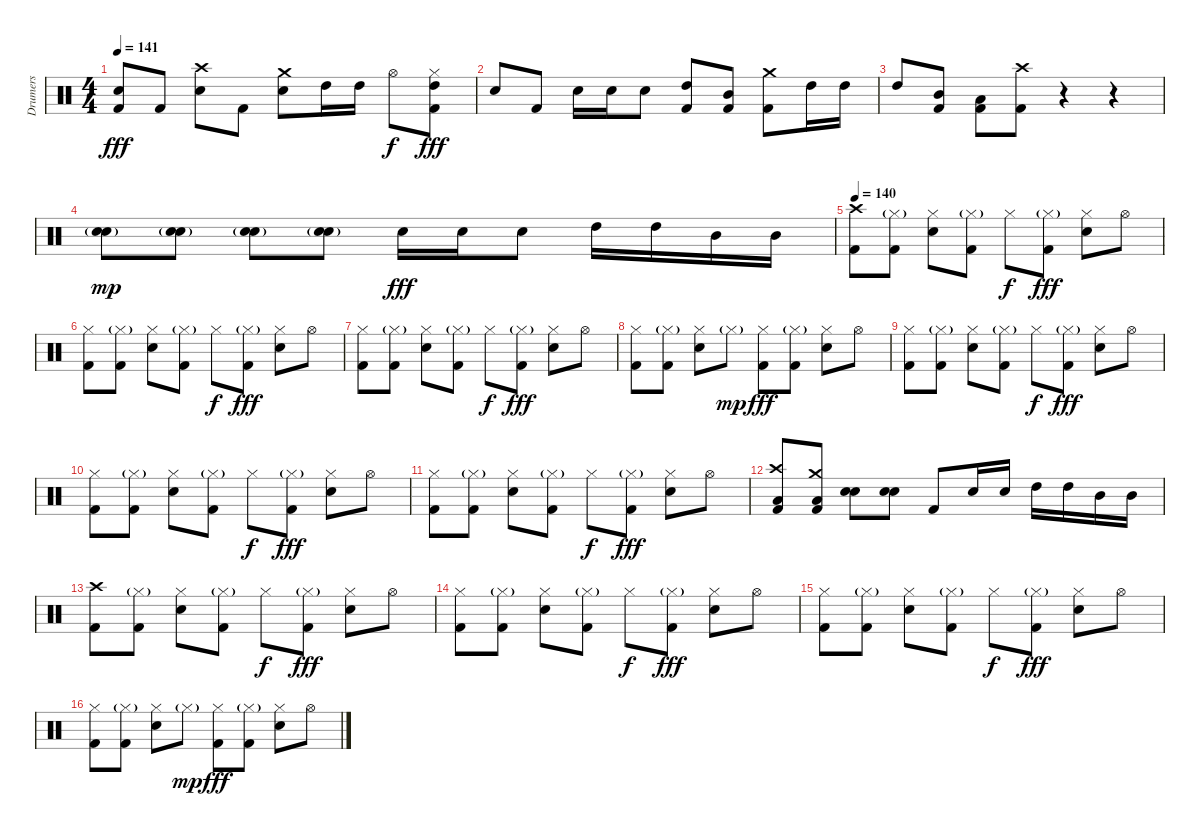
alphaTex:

\track ("Drumers" "Drumers") {instrument percussion}
\staff {score}
\articulation defaults
\ts (4 4)
\tempo 141
\clef neutral
\ks c
("Electric Snare (hit)" "Kick (hit) 2").8{dy fff} "Kick (hit) 2".8 ("Crash high (hit)" "Electric Snare (hit)").8 "Kick (hit) 2".8 ("Crash medium (hit)" "Electric Snare (hit)").8 "High Tom (hit)".16 "High Tom (hit)".16 "Hi-Hat (open)".8{dy f} ("Hi-Hat (closed)" "High Tom (hit)" "Kick (hit) 2").8{dy fff} |
"Electric Snare (hit)".8 "Kick (hit) 2".8 "Electric Snare (hit)".16 "Electric Snare (hit)".16 "Electric Snare (hit)".8 ("High Tom (hit)" "Kick (hit) 2").8 ("Mid Tom (hit)" "Kick (hit) 2").8 ("Crash medium (hit)" "Kick (hit) 2").8 "High Tom (hit)".16 "High Tom (hit)".16 |
"High Tom (hit)".8 ("Mid Tom (hit)" "Kick (hit) 2").8 ("Low Tom (hit)" "Kick (hit) 2").8 ("Crash high (hit)" "Kick (hit) 2").8 r.4 r.4 |
("Electric Snare (hit)"{g} "Electric Snare (hit)"{g}).8{dy mp} ("Electric Snare (hit)"{g} "Electric Snare (hit)"{g}).8 ("Electric Snare (hit)"{g} "Electric Snare (hit)"{g}).8 ("Electric Snare (hit)"{g} "Electric Snare (hit)"{g}).8 "Electric Snare (hit)".16{dy fff} "Electric Snare (hit)".16 "Electric Snare (hit)".8 "High Tom (hit)".16 "High Tom (hit)".16 "Mid Tom (hit)".16 "Mid Tom (hit)".16 |
\tempo 140
("Crash high (hit)" "Kick (hit) 2").8 ("Hi-Hat (closed)"{g} "Kick (hit) 2").8 ("Hi-Hat (closed)" "Electric Snare (hit)").8 ("Hi-Hat (closed)"{g} "Kick (hit) 2").8 "Hi-Hat (closed)".8{dy f} ("Hi-Hat (closed)"{g} "Kick (hit) 2").8{dy fff} ("Hi-Hat (closed)" "Electric Snare (hit)").8 "Hi-Hat (open)".8 |
("Hi-Hat (closed)" "Kick (hit) 2").8 ("Hi-Hat (closed)"{g} "Kick (hit) 2").8 ("Hi-Hat (closed)" "Electric Snare (hit)").8 ("Hi-Hat (closed)"{g} "Kick (hit) 2").8 "Hi-Hat (closed)".8{dy f} ("Hi-Hat (closed)"{g} "Kick (hit) 2").8{dy fff} ("Hi-Hat (closed)" "Electric Snare (hit)").8 "Hi-Hat (open)".8 |
("Hi-Hat (closed)" "Kick (hit) 2").8 ("Hi-Hat (closed)"{g} "Kick (hit) 2").8 ("Hi-Hat (closed)" "Electric Snare (hit)").8 ("Hi-Hat (closed)"{g} "Kick (hit) 2").8 "Hi-Hat (closed)".8{dy f} ("Hi-Hat (closed)"{g} "Kick (hit) 2").8{dy fff} ("Hi-Hat (closed)" "Electric Snare (hit)").8 "Hi-Hat (open)".8 |
("Hi-Hat (closed)" "Kick (hit) 2").8 ("Hi-Hat (closed)"{g} "Kick (hit) 2").8 ("Hi-Hat (closed)" "Electric Snare (hit)").8 "Hi-Hat (closed)"{g}.8{dy mp} ("Hi-Hat (closed)" "Kick (hit) 2").8{dy fff} ("Hi-Hat (closed)"{g} "Kick (hit) 2").8 ("Hi-Hat (closed)" "Electric Snare (hit)").8 "Hi-Hat (open)".8 |
("Hi-Hat (closed)" "Kick (hit) 2").8 ("Hi-Hat (closed)"{g} "Kick (hit) 2").8 ("Hi-Hat (closed)" "Electric Snare (hit)").8 ("Hi-Hat (closed)"{g} "Kick (hit) 2").8 "Hi-Hat (closed)".8{dy f} ("Hi-Hat (closed)"{g} "Kick (hit) 2").8{dy fff} ("Hi-Hat (closed)" "Electric Snare (hit)").8 "Hi-Hat (open)".8 |
("Hi-Hat (closed)" "Kick (hit) 2").8 ("Hi-Hat (closed)"{g} "Kick (hit) 2").8 ("Hi-Hat (closed)" "Electric Snare (hit)").8 ("Hi-Hat (closed)"{g} "Kick (hit) 2").8 "Hi-Hat (closed)".8{dy f} ("Hi-Hat (closed)"{g} "Kick (hit) 2").8{dy fff} ("Hi-Hat (closed)" "Electric Snare (hit)").8 "Hi-Hat (open)".8 |
("Hi-Hat (closed)" "Kick (hit) 2").8 ("Hi-Hat (closed)"{g} "Kick (hit) 2").8 ("Hi-Hat (closed)" "Electric Snare (hit)").8 ("Hi-Hat (closed)"{g} "Kick (hit) 2").8 "Hi-Hat (closed)".8{dy f} ("Hi-Hat (closed)"{g} "Kick (hit) 2").8{dy fff} ("Hi-Hat (closed)" "Electric Snare (hit)").8 "Hi-Hat (open)".8 |
("Crash high (hit)" "Low Tom (hit)" "Kick (hit) 2").8 ("Crash medium (hit)" "Low Tom (hit)" "Kick (hit) 2").8 ("Electric Snare (hit)" "Electric Snare (hit)").8 ("Electric Snare (hit)" "Electric Snare (hit)").8 "Kick (hit) 2".8 "Electric Snare (hit)".16 "Electric Snare (hit)".16 "High Tom (hit)".16 "High Tom (hit)".16 "Mid Tom (hit)".16 "Mid Tom (hit)".16 |
("Crash high (hit)" "Kick (hit) 2").8 ("Hi-Hat (closed)"{g} "Kick (hit) 2").8 ("Hi-Hat (closed)" "Electric Snare (hit)").8 ("Hi-Hat (closed)"{g} "Kick (hit) 2").8 "Hi-Hat (closed)".8{dy f} ("Hi-Hat (closed)"{g} "Kick (hit) 2").8{dy fff} ("Hi-Hat (closed)" "Electric Snare (hit)").8 "Hi-Hat (open)".8 |
("Hi-Hat (closed)" "Kick (hit) 2").8 ("Hi-Hat (closed)"{g} "Kick (hit) 2").8 ("Hi-Hat (closed)" "Electric Snare (hit)").8 ("Hi-Hat (closed)"{g} "Kick (hit) 2").8 "Hi-Hat (closed)".8{dy f} ("Hi-Hat (closed)"{g} "Kick (hit) 2").8{dy fff} ("Hi-Hat (closed)" "Electric Snare (hit)").8 "Hi-Hat (open)".8 |
("Hi-Hat (closed)" "Kick (hit) 2").8 ("Hi-Hat (closed)"{g} "Kick (hit) 2").8 ("Hi-Hat (closed)" "Electric Snare (hit)").8 ("Hi-Hat (closed)"{g} "Kick (hit) 2").8 "Hi-Hat (closed)".8{dy f} ("Hi-Hat (closed)"{g} "Kick (hit) 2").8{dy fff} ("Hi-Hat (closed)" "Electric Snare (hit)").8 "Hi-Hat (open)".8 |
("Hi-Hat (closed)" "Kick (hit) 2").8 ("Hi-Hat (closed)"{g} "Kick (hit) 2").8 ("Hi-Hat (closed)" "Electric Snare (hit)").8 "Hi-Hat (closed)"{g}.8{dy mp} ("Hi-Hat (closed)" "Kick (hit) 2").8{dy fff} ("Hi-Hat (closed)"{g} "Kick (hit) 2").8 ("Hi-Hat (closed)" "Electric Snare (hit)").8 "Hi-Hat (open)".8
